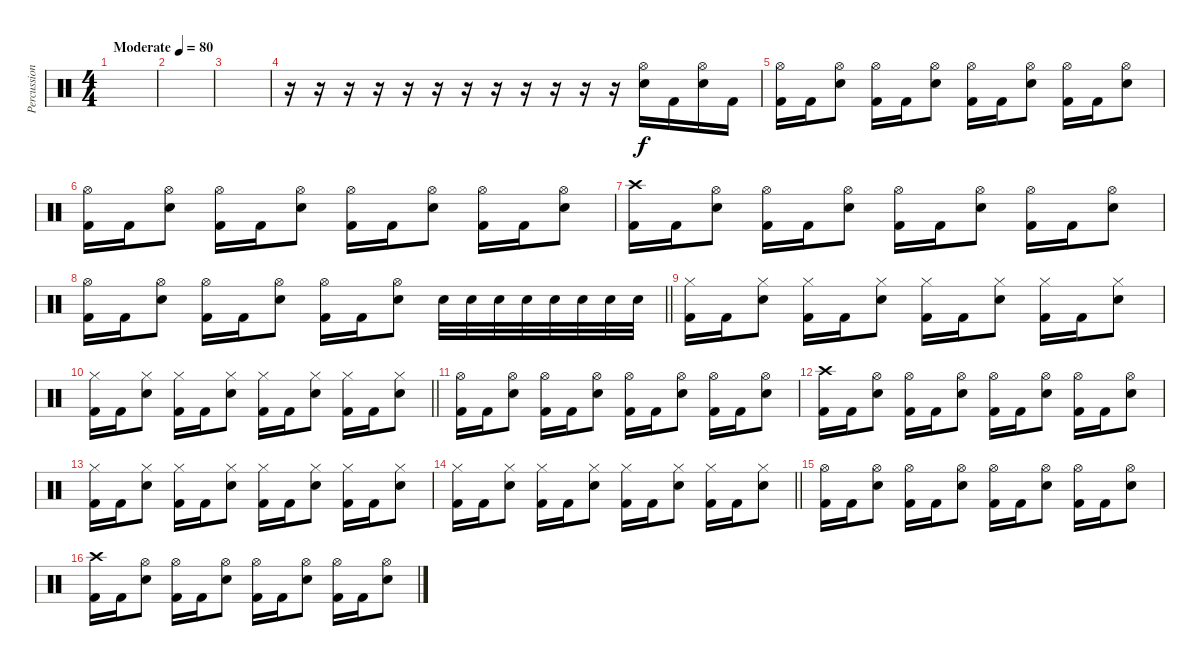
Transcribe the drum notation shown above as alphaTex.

\track ("Percussion" "Percussion") {instrument percussion}
\staff {score}
\articulation defaults
\ts (4 4)
\tempo (80 "Moderate")
\clef neutral
\ks c
|
|
|
r.16 r.16 r.16 r.16 r.16 r.16 r.16 r.16 r.16 r.16 r.16 r.16 ("Hi-Hat (open)" "Snare (hit) 2").16 "Kick (hit) 2".16 ("Hi-Hat (open)" "Snare (hit) 2").16 "Kick (hit) 2".16 |
("Hi-Hat (open)" "Kick (hit) 2").16 "Kick (hit) 2".16 ("Hi-Hat (open)" "Snare (hit) 2").8 ("Hi-Hat (open)" "Kick (hit) 2").16 "Kick (hit) 2".16 ("Hi-Hat (open)" "Snare (hit) 2").8 ("Hi-Hat (open)" "Kick (hit) 2").16 "Kick (hit) 2".16 ("Hi-Hat (open)" "Snare (hit) 2").8 ("Hi-Hat (open)" "Kick (hit) 2").16 "Kick (hit) 2".16 ("Hi-Hat (open)" "Snare (hit) 2").8 |
("Hi-Hat (open)" "Kick (hit) 2").16 "Kick (hit) 2".16 ("Hi-Hat (open)" "Snare (hit) 2").8 ("Hi-Hat (open)" "Kick (hit) 2").16 "Kick (hit) 2".16 ("Hi-Hat (open)" "Snare (hit) 2").8 ("Hi-Hat (open)" "Kick (hit) 2").16 "Kick (hit) 2".16 ("Hi-Hat (open)" "Snare (hit) 2").8 ("Hi-Hat (open)" "Kick (hit) 2").16 "Kick (hit) 2".16 ("Hi-Hat (open)" "Snare (hit) 2").8 |
("Crash high (hit)" "Kick (hit) 2").16 "Kick (hit) 2".16 ("Hi-Hat (open)" "Snare (hit) 2").8 ("Hi-Hat (open)" "Kick (hit) 2").16 "Kick (hit) 2".16 ("Hi-Hat (open)" "Snare (hit) 2").8 ("Hi-Hat (open)" "Kick (hit) 2").16 "Kick (hit) 2".16 ("Hi-Hat (open)" "Snare (hit) 2").8 ("Hi-Hat (open)" "Kick (hit) 2").16 "Kick (hit) 2".16 ("Hi-Hat (open)" "Snare (hit) 2").8 |
\barLineRight lightlight
("Hi-Hat (open)" "Kick (hit) 2").16 "Kick (hit) 2".16 ("Hi-Hat (open)" "Snare (hit) 2").8 ("Hi-Hat (open)" "Kick (hit) 2").16 "Kick (hit) 2".16 ("Hi-Hat (open)" "Snare (hit) 2").8 ("Hi-Hat (open)" "Kick (hit) 2").16 "Kick (hit) 2".16 ("Hi-Hat (open)" "Snare (hit) 2").8 "Snare (hit) 2".32 "Snare (hit) 2".32 "Snare (hit) 2".32 "Snare (hit) 2".32 "Snare (hit) 2".32 "Snare (hit) 2".32 "Snare (hit) 2".32 "Snare (hit) 2".32 |
("Hi-Hat (closed)" "Kick (hit) 2").16 "Kick (hit) 2".16 ("Hi-Hat (closed)" "Snare (hit) 2").8 ("Hi-Hat (closed)" "Kick (hit) 2").16 "Kick (hit) 2".16 ("Hi-Hat (closed)" "Snare (hit) 2").8 ("Hi-Hat (closed)" "Kick (hit) 2").16 "Kick (hit) 2".16 ("Hi-Hat (closed)" "Snare (hit) 2").8 ("Hi-Hat (closed)" "Kick (hit) 2").16 "Kick (hit) 2".16 ("Hi-Hat (closed)" "Snare (hit) 2").8 |
\barLineRight lightlight
("Hi-Hat (closed)" "Kick (hit) 2").16 "Kick (hit) 2".16 ("Hi-Hat (closed)" "Snare (hit) 2").8 ("Hi-Hat (closed)" "Kick (hit) 2").16 "Kick (hit) 2".16 ("Hi-Hat (closed)" "Snare (hit) 2").8 ("Hi-Hat (closed)" "Kick (hit) 2").16 "Kick (hit) 2".16 ("Hi-Hat (closed)" "Snare (hit) 2").8 ("Hi-Hat (closed)" "Kick (hit) 2").16 "Kick (hit) 2".16 ("Hi-Hat (closed)" "Snare (hit) 2").8 |
("Hi-Hat (open)" "Kick (hit) 2").16 "Kick (hit) 2".16 ("Hi-Hat (open)" "Snare (hit) 2").8 ("Hi-Hat (open)" "Kick (hit) 2").16 "Kick (hit) 2".16 ("Hi-Hat (open)" "Snare (hit) 2").8 ("Hi-Hat (open)" "Kick (hit) 2").16 "Kick (hit) 2".16 ("Hi-Hat (open)" "Snare (hit) 2").8 ("Hi-Hat (open)" "Kick (hit) 2").16 "Kick (hit) 2".16 ("Hi-Hat (open)" "Snare (hit) 2").8 |
("Crash high (hit)" "Kick (hit) 2").16 "Kick (hit) 2".16 ("Hi-Hat (open)" "Snare (hit) 2").8 ("Hi-Hat (open)" "Kick (hit) 2").16 "Kick (hit) 2".16 ("Hi-Hat (open)" "Snare (hit) 2").8 ("Hi-Hat (open)" "Kick (hit) 2").16 "Kick (hit) 2".16 ("Hi-Hat (open)" "Snare (hit) 2").8 ("Hi-Hat (open)" "Kick (hit) 2").16 "Kick (hit) 2".16 ("Hi-Hat (open)" "Snare (hit) 2").8 |
("Hi-Hat (closed)" "Kick (hit) 2").16 "Kick (hit) 2".16 ("Hi-Hat (closed)" "Snare (hit) 2").8 ("Hi-Hat (closed)" "Kick (hit) 2").16 "Kick (hit) 2".16 ("Hi-Hat (closed)" "Snare (hit) 2").8 ("Hi-Hat (closed)" "Kick (hit) 2").16 "Kick (hit) 2".16 ("Hi-Hat (closed)" "Snare (hit) 2").8 ("Hi-Hat (closed)" "Kick (hit) 2").16 "Kick (hit) 2".16 ("Hi-Hat (closed)" "Snare (hit) 2").8 |
\barLineRight lightlight
("Hi-Hat (closed)" "Kick (hit) 2").16 "Kick (hit) 2".16 ("Hi-Hat (closed)" "Snare (hit) 2").8 ("Hi-Hat (closed)" "Kick (hit) 2").16 "Kick (hit) 2".16 ("Hi-Hat (closed)" "Snare (hit) 2").8 ("Hi-Hat (closed)" "Kick (hit) 2").16 "Kick (hit) 2".16 ("Hi-Hat (closed)" "Snare (hit) 2").8 ("Hi-Hat (closed)" "Kick (hit) 2").16 "Kick (hit) 2".16 ("Hi-Hat (closed)" "Snare (hit) 2").8 |
("Hi-Hat (open)" "Kick (hit) 2").16 "Kick (hit) 2".16 ("Hi-Hat (open)" "Snare (hit) 2").8 ("Hi-Hat (open)" "Kick (hit) 2").16 "Kick (hit) 2".16 ("Hi-Hat (open)" "Snare (hit) 2").8 ("Hi-Hat (open)" "Kick (hit) 2").16 "Kick (hit) 2".16 ("Hi-Hat (open)" "Snare (hit) 2").8 ("Hi-Hat (open)" "Kick (hit) 2").16 "Kick (hit) 2".16 ("Hi-Hat (open)" "Snare (hit) 2").8 |
("Crash high (hit)" "Kick (hit) 2").16 "Kick (hit) 2".16 ("Hi-Hat (open)" "Snare (hit) 2").8 ("Hi-Hat (open)" "Kick (hit) 2").16 "Kick (hit) 2".16 ("Hi-Hat (open)" "Snare (hit) 2").8 ("Hi-Hat (open)" "Kick (hit) 2").16 "Kick (hit) 2".16 ("Hi-Hat (open)" "Snare (hit) 2").8 ("Hi-Hat (open)" "Kick (hit) 2").16 "Kick (hit) 2".16 ("Hi-Hat (open)" "Snare (hit) 2").8
